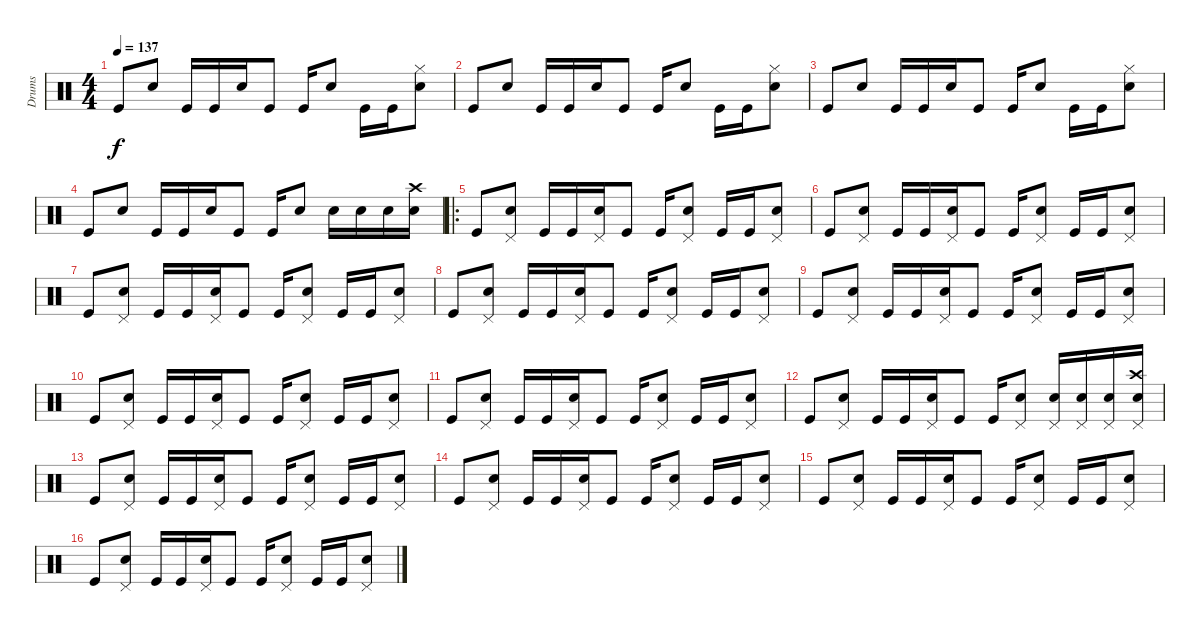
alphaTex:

\track ("Drums" "Drums") {instrument percussion}
\staff {score}
\articulation defaults
\ts (4 4)
\tempo 137
\clef neutral
\ks c "Kick (hit)".8{dy f} "Electric Snare (hit)".8 "Kick (hit)".16 "Kick (hit)".16 "Electric Snare (hit)".16 "Kick (hit)".8 "Kick (hit)".16 "Electric Snare (hit)".8 "Kick (hit)".16 "Kick (hit)".16
("Electric Snare (hit)" "Hi-Hat (closed)").8 |
"Kick (hit)".8 "Electric Snare (hit)".8 "Kick (hit)".16 "Kick (hit)".16 "Electric Snare (hit)".16 "Kick (hit)".8 "Kick (hit)".16 "Electric Snare (hit)".8 "Kick (hit)".16 "Kick (hit)".16 ("Electric Snare (hit)" "Hi-Hat (closed)").8 |
"Kick (hit)".8 "Electric Snare (hit)".8 "Kick (hit)".16 "Kick (hit)".16 "Electric Snare (hit)".16 "Kick (hit)".8 "Kick (hit)".16 "Electric Snare (hit)".8 "Kick (hit)".16 "Kick (hit)".16 ("Electric Snare (hit)" "Hi-Hat (closed)").8 |
"Kick (hit)".8 "Electric Snare (hit)".8 "Kick (hit)".16 "Kick (hit)".16 "Electric Snare (hit)".16 "Kick (hit)".8 "Kick (hit)".16 "Electric Snare (hit)".8 "Electric Snare (hit)".16 "Electric Snare (hit)".16 "Electric Snare (hit)".16 ("Electric Snare (hit)" "Crash high (hit)").16 |
\ro "Kick (hit)".8
("Electric Snare (hit)" "Pedal Hi-Hat (hit)").8 "Kick (hit)".16 "Kick (hit)".16 ("Electric Snare (hit)" "Pedal Hi-Hat (hit)").16 "Kick (hit)".8 "Kick (hit)".16 ("Electric Snare (hit)" "Pedal Hi-Hat (hit)").8 "Kick (hit)".16 "Kick (hit)".16 ("Electric Snare (hit)" "Pedal Hi-Hat (hit)").8 |
"Kick (hit)".8 ("Electric Snare (hit)" "Pedal Hi-Hat (hit)").8 "Kick (hit)".16 "Kick (hit)".16 ("Electric Snare (hit)" "Pedal Hi-Hat (hit)").16 "Kick (hit)".8 "Kick (hit)".16 ("Electric Snare (hit)" "Pedal Hi-Hat (hit)").8 "Kick (hit)".16 "Kick (hit)".16 ("Electric Snare (hit)" "Pedal Hi-Hat (hit)").8 |
"Kick (hit)".8 ("Electric Snare (hit)" "Pedal Hi-Hat (hit)").8 "Kick (hit)".16 "Kick (hit)".16 ("Electric Snare (hit)" "Pedal Hi-Hat (hit)").16 "Kick (hit)".8 "Kick (hit)".16 ("Electric Snare (hit)" "Pedal Hi-Hat (hit)").8 "Kick (hit)".16 "Kick (hit)".16 ("Electric Snare (hit)" "Pedal Hi-Hat (hit)").8 |
"Kick (hit)".8 ("Electric Snare (hit)" "Pedal Hi-Hat (hit)").8 "Kick (hit)".16 "Kick (hit)".16 ("Electric Snare (hit)" "Pedal Hi-Hat (hit)").16 "Kick (hit)".8 "Kick (hit)".16 ("Electric Snare (hit)" "Pedal Hi-Hat (hit)").8 "Kick (hit)".16 "Kick (hit)".16 ("Electric Snare (hit)" "Pedal Hi-Hat (hit)").8 |
"Kick (hit)".8 ("Electric Snare (hit)" "Pedal Hi-Hat (hit)").8 "Kick (hit)".16 "Kick (hit)".16 ("Electric Snare (hit)" "Pedal Hi-Hat (hit)").16 "Kick (hit)".8 "Kick (hit)".16 ("Electric Snare (hit)" "Pedal Hi-Hat (hit)").8 "Kick (hit)".16 "Kick (hit)".16 ("Electric Snare (hit)" "Pedal Hi-Hat (hit)").8 |
"Kick (hit)".8 ("Electric Snare (hit)" "Pedal Hi-Hat (hit)").8 "Kick (hit)".16 "Kick (hit)".16 ("Electric Snare (hit)" "Pedal Hi-Hat (hit)").16 "Kick (hit)".8 "Kick (hit)".16 ("Electric Snare (hit)" "Pedal Hi-Hat (hit)").8 "Kick (hit)".16 "Kick (hit)".16 ("Electric Snare (hit)" "Pedal Hi-Hat (hit)").8 |
"Kick (hit)".8 ("Electric Snare (hit)" "Pedal Hi-Hat (hit)").8 "Kick (hit)".16 "Kick (hit)".16 ("Electric Snare (hit)" "Pedal Hi-Hat (hit)").16 "Kick (hit)".8 "Kick (hit)".16 ("Electric Snare (hit)" "Pedal Hi-Hat (hit)").8 "Kick (hit)".16 "Kick (hit)".16 ("Electric Snare (hit)" "Pedal Hi-Hat (hit)").8 |
"Kick (hit)".8 ("Electric Snare (hit)" "Pedal Hi-Hat (hit)").8 "Kick (hit)".16 "Kick (hit)".16 ("Electric Snare (hit)" "Pedal Hi-Hat (hit)").16 "Kick (hit)".8 "Kick (hit)".16 ("Electric Snare (hit)" "Pedal Hi-Hat (hit)").8 ("Electric Snare (hit)" "Pedal Hi-Hat (hit)").16 ("Electric Snare (hit)" "Pedal Hi-Hat (hit)").16 ("Electric Snare (hit)" "Pedal Hi-Hat (hit)").16 ("Electric Snare (hit)" "Crash high (hit)" "Pedal Hi-Hat (hit)").16 |
"Kick (hit)".8 ("Electric Snare (hit)" "Pedal Hi-Hat (hit)").8 "Kick (hit)".16 "Kick (hit)".16 ("Electric Snare (hit)" "Pedal Hi-Hat (hit)").16 "Kick (hit)".8 "Kick (hit)".16 ("Electric Snare (hit)" "Pedal Hi-Hat (hit)").8 "Kick (hit)".16 "Kick (hit)".16 ("Electric Snare (hit)" "Pedal Hi-Hat (hit)").8 |
"Kick (hit)".8 ("Electric Snare (hit)" "Pedal Hi-Hat (hit)").8 "Kick (hit)".16 "Kick (hit)".16 ("Electric Snare (hit)" "Pedal Hi-Hat (hit)").16 "Kick (hit)".8 "Kick (hit)".16 ("Electric Snare (hit)" "Pedal Hi-Hat (hit)").8 "Kick (hit)".16 "Kick (hit)".16 ("Electric Snare (hit)" "Pedal Hi-Hat (hit)").8 |
"Kick (hit)".8 ("Electric Snare (hit)" "Pedal Hi-Hat (hit)").8 "Kick (hit)".16 "Kick (hit)".16 ("Electric Snare (hit)" "Pedal Hi-Hat (hit)").16 "Kick (hit)".8 "Kick (hit)".16 ("Electric Snare (hit)" "Pedal Hi-Hat (hit)").8 "Kick (hit)".16 "Kick (hit)".16 ("Electric Snare (hit)" "Pedal Hi-Hat (hit)").8 |
"Kick (hit)".8 ("Electric Snare (hit)" "Pedal Hi-Hat (hit)").8 "Kick (hit)".16 "Kick (hit)".16 ("Electric Snare (hit)" "Pedal Hi-Hat (hit)").16 "Kick (hit)".8 "Kick (hit)".16 ("Electric Snare (hit)" "Pedal Hi-Hat (hit)").8 "Kick (hit)".16 "Kick (hit)".16 ("Electric Snare (hit)" "Pedal Hi-Hat (hit)").8
